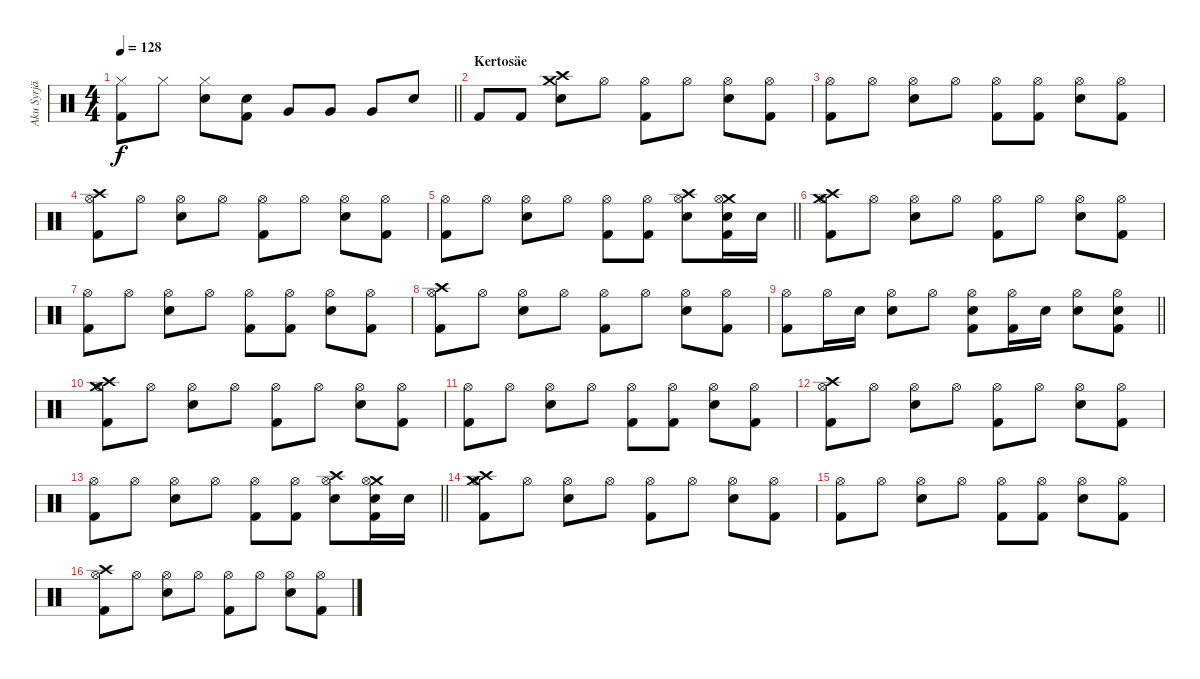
\track ("Aku Syrjä" "Aku Syrjä") {instrument percussion}
\staff {score}
\articulation defaults
\ts (4 4)
\tempo 128
\clef neutral
\barLineRight lightlight
\ks c
("Hi-Hat (closed)" "Kick (hit) 2").8{dy f} "Hi-Hat (closed)".8 ("Hi-Hat (closed)" "Electric Snare (hit)").8 ("Electric Snare (hit)" "Kick (hit) 2").8 "Very Low Tom (hit)".8 "Very Low Tom (hit)".8 "Very Low Tom (hit)".8 "Electric Snare (hit)".8 |
\section ("" "Kertosäe")
"Kick (hit) 2".8 "Kick (hit) 2".8 ("Crash high (hit)" "Crash medium (hit)" "Electric Snare (hit)").8 "Hi-Hat (open)".8 ("Hi-Hat (open)" "Kick (hit) 2").8 "Hi-Hat (open)".8 ("Hi-Hat (open)" "Electric Snare (hit)").8 ("Hi-Hat (open)" "Kick (hit) 2").8 |
("Hi-Hat (open)" "Kick (hit) 2").8 "Hi-Hat (open)".8 ("Hi-Hat (open)" "Electric Snare (hit)").8 "Hi-Hat (open)".8 ("Hi-Hat (open)" "Kick (hit) 2").8 ("Hi-Hat (open)" "Kick (hit) 2").8 ("Hi-Hat (open)" "Electric Snare (hit)").8 ("Hi-Hat (open)" "Kick (hit) 2").8 |
("Crash high (hit)" "Hi-Hat (open)" "Kick (hit) 2").8 "Hi-Hat (open)".8 ("Hi-Hat (open)" "Electric Snare (hit)").8 "Hi-Hat (open)".8 ("Hi-Hat (open)" "Kick (hit) 2").8 "Hi-Hat (open)".8 ("Hi-Hat (open)" "Electric Snare (hit)").8 ("Hi-Hat (open)" "Kick (hit) 2").8 |
\barLineRight lightlight
("Hi-Hat (open)" "Kick (hit) 2").8 "Hi-Hat (open)".8 ("Hi-Hat (open)" "Electric Snare (hit)").8 "Hi-Hat (open)".8 ("Hi-Hat (open)" "Kick (hit) 2").8 ("Hi-Hat (open)" "Kick (hit) 2").8 ("Crash high (hit)" "Hi-Hat (open)" "Electric Snare (hit)").8 ("Crash medium (hit)" "Hi-Hat (open)" "Electric Snare (hit)" "Kick (hit) 2").16 "Electric Snare (hit)".16 |
("Crash high (hit)" "Crash medium (hit)" "Hi-Hat (open)" "Kick (hit) 2").8 "Hi-Hat (open)".8 ("Hi-Hat (open)" "Electric Snare (hit)").8 "Hi-Hat (open)".8 ("Hi-Hat (open)" "Kick (hit) 2").8 "Hi-Hat (open)".8 ("Hi-Hat (open)" "Electric Snare (hit)").8 ("Hi-Hat (open)" "Kick (hit) 2").8 |
("Hi-Hat (open)" "Kick (hit) 2").8 "Hi-Hat (open)".8 ("Hi-Hat (open)" "Electric Snare (hit)").8 "Hi-Hat (open)".8 ("Hi-Hat (open)" "Kick (hit) 2").8 ("Hi-Hat (open)" "Kick (hit) 2").8 ("Hi-Hat (open)" "Electric Snare (hit)").8 ("Hi-Hat (open)" "Kick (hit) 2").8 |
("Crash high (hit)" "Hi-Hat (open)" "Kick (hit) 2").8 "Hi-Hat (open)".8 ("Hi-Hat (open)" "Electric Snare (hit)").8 "Hi-Hat (open)".8 ("Hi-Hat (open)" "Kick (hit) 2").8 "Hi-Hat (open)".8 ("Hi-Hat (open)" "Electric Snare (hit)").8 ("Hi-Hat (open)" "Kick (hit) 2").8 |
\barLineRight lightlight
("Hi-Hat (open)" "Kick (hit) 2").8 "Hi-Hat (open)".16 "Electric Snare (hit)".16 ("Hi-Hat (open)" "Electric Snare (hit)").8 "Hi-Hat (open)".8 ("Hi-Hat (open)" "Electric Snare (hit)" "Kick (hit) 2").8 ("Hi-Hat (open)" "Kick (hit) 2").16 "Electric Snare (hit)".16 ("Hi-Hat (open)" "Electric Snare (hit)").8 ("Hi-Hat (open)" "Electric Snare (hit)" "Kick (hit) 2").8 |
("Crash high (hit)" "Crash medium (hit)" "Hi-Hat (open)" "Kick (hit) 2").8 "Hi-Hat (open)".8 ("Hi-Hat (open)" "Electric Snare (hit)").8 "Hi-Hat (open)".8 ("Hi-Hat (open)" "Kick (hit) 2").8 "Hi-Hat (open)".8 ("Hi-Hat (open)" "Electric Snare (hit)").8 ("Hi-Hat (open)" "Kick (hit) 2").8 |
("Hi-Hat (open)" "Kick (hit) 2").8 "Hi-Hat (open)".8 ("Hi-Hat (open)" "Electric Snare (hit)").8 "Hi-Hat (open)".8 ("Hi-Hat (open)" "Kick (hit) 2").8 ("Hi-Hat (open)" "Kick (hit) 2").8 ("Hi-Hat (open)" "Electric Snare (hit)").8 ("Hi-Hat (open)" "Kick (hit) 2").8 |
("Crash high (hit)" "Hi-Hat (open)" "Kick (hit) 2").8 "Hi-Hat (open)".8 ("Hi-Hat (open)" "Electric Snare (hit)").8 "Hi-Hat (open)".8 ("Hi-Hat (open)" "Kick (hit) 2").8 "Hi-Hat (open)".8 ("Hi-Hat (open)" "Electric Snare (hit)").8 ("Hi-Hat (open)" "Kick (hit) 2").8 |
\barLineRight lightlight
("Hi-Hat (open)" "Kick (hit) 2").8 "Hi-Hat (open)".8 ("Hi-Hat (open)" "Electric Snare (hit)").8 "Hi-Hat (open)".8 ("Hi-Hat (open)" "Kick (hit) 2").8 ("Hi-Hat (open)" "Kick (hit) 2").8 ("Crash high (hit)" "Hi-Hat (open)" "Electric Snare (hit)").8 ("Crash medium (hit)" "Hi-Hat (open)" "Electric Snare (hit)" "Kick (hit) 2").16 "Electric Snare (hit)".16 |
("Crash high (hit)" "Crash medium (hit)" "Hi-Hat (open)" "Kick (hit) 2").8 "Hi-Hat (open)".8 ("Hi-Hat (open)" "Electric Snare (hit)").8 "Hi-Hat (open)".8 ("Hi-Hat (open)" "Kick (hit) 2").8 "Hi-Hat (open)".8 ("Hi-Hat (open)" "Electric Snare (hit)").8 ("Hi-Hat (open)" "Kick (hit) 2").8 |
("Hi-Hat (open)" "Kick (hit) 2").8 "Hi-Hat (open)".8 ("Hi-Hat (open)" "Electric Snare (hit)").8 "Hi-Hat (open)".8 ("Hi-Hat (open)" "Kick (hit) 2").8 ("Hi-Hat (open)" "Kick (hit) 2").8 ("Hi-Hat (open)" "Electric Snare (hit)").8 ("Hi-Hat (open)" "Kick (hit) 2").8 |
("Crash high (hit)" "Hi-Hat (open)" "Kick (hit) 2").8 "Hi-Hat (open)".8 ("Hi-Hat (open)" "Electric Snare (hit)").8 "Hi-Hat (open)".8 ("Hi-Hat (open)" "Kick (hit) 2").8 "Hi-Hat (open)".8 ("Hi-Hat (open)" "Electric Snare (hit)").8 ("Hi-Hat (open)" "Kick (hit) 2").8
